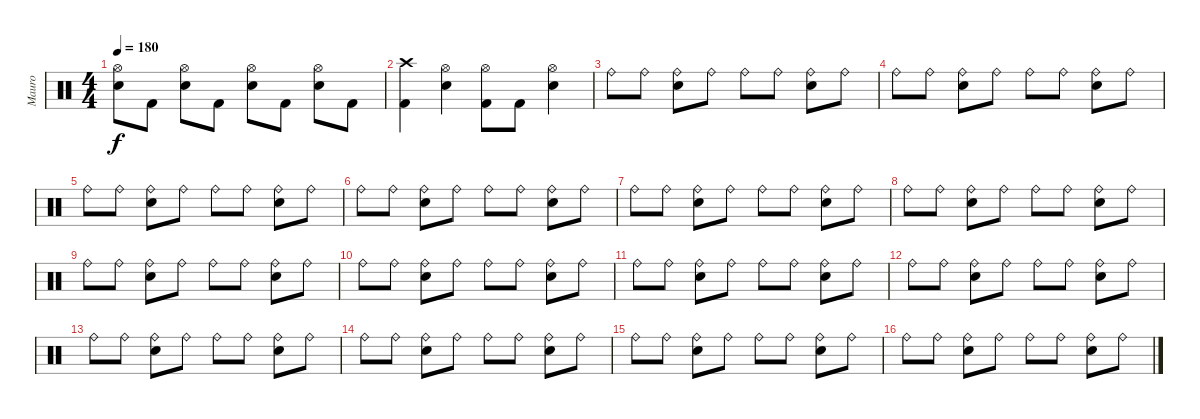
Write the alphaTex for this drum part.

\track ("Mauro" "Mauro") {instrument percussion}
\staff {score}
\articulation defaults
\ts (4 4)
\tempo 180
\clef neutral
\ks c
("Hi-Hat (open)" "Snare (hit) 2").8{dy f} "Kick (hit) 2".8 ("Hi-Hat (open)" "Snare (hit) 2").8 "Kick (hit) 2".8 ("Hi-Hat (open)" "Snare (hit) 2").8 "Kick (hit) 2".8 ("Hi-Hat (open)" "Snare (hit) 2").8 "Kick (hit) 2".8 |
("Crash high (hit)" "Kick (hit) 2").4 ("Hi-Hat (open)" "Snare (hit) 2").4 ("Hi-Hat (open)" "Kick (hit) 2").8 "Kick (hit) 2".8 ("Hi-Hat (open)" "Snare (hit) 2").4 |
"Ride (bell)".8 "Ride (bell)".8 ("Ride (bell)" "Snare (hit) 2").8 "Ride (bell)".8 "Ride (bell)".8 "Ride (bell)".8 ("Ride (bell)" "Snare (hit) 2").8 "Ride (bell)".8 |
"Ride (bell)".8 "Ride (bell)".8 ("Ride (bell)" "Snare (hit) 2").8 "Ride (bell)".8 "Ride (bell)".8 "Ride (bell)".8 ("Ride (bell)" "Snare (hit) 2").8 "Ride (bell)".8 |
"Ride (bell)".8 "Ride (bell)".8 ("Ride (bell)" "Snare (hit) 2").8 "Ride (bell)".8 "Ride (bell)".8 "Ride (bell)".8 ("Ride (bell)" "Snare (hit) 2").8 "Ride (bell)".8 |
"Ride (bell)".8 "Ride (bell)".8 ("Ride (bell)" "Snare (hit) 2").8 "Ride (bell)".8 "Ride (bell)".8 "Ride (bell)".8 ("Ride (bell)" "Snare (hit) 2").8 "Ride (bell)".8 |
"Ride (bell)".8 "Ride (bell)".8 ("Ride (bell)" "Snare (hit) 2").8 "Ride (bell)".8 "Ride (bell)".8 "Ride (bell)".8 ("Ride (bell)" "Snare (hit) 2").8 "Ride (bell)".8 |
"Ride (bell)".8 "Ride (bell)".8 ("Ride (bell)" "Snare (hit) 2").8 "Ride (bell)".8 "Ride (bell)".8 "Ride (bell)".8 ("Ride (bell)" "Snare (hit) 2").8 "Ride (bell)".8 |
"Ride (bell)".8 "Ride (bell)".8 ("Ride (bell)" "Snare (hit) 2").8 "Ride (bell)".8 "Ride (bell)".8 "Ride (bell)".8 ("Ride (bell)" "Snare (hit) 2").8 "Ride (bell)".8 |
"Ride (bell)".8 "Ride (bell)".8 ("Ride (bell)" "Snare (hit) 2").8 "Ride (bell)".8 "Ride (bell)".8 "Ride (bell)".8 ("Ride (bell)" "Snare (hit) 2").8 "Ride (bell)".8 |
"Ride (bell)".8 "Ride (bell)".8 ("Ride (bell)" "Snare (hit) 2").8 "Ride (bell)".8 "Ride (bell)".8 "Ride (bell)".8 ("Ride (bell)" "Snare (hit) 2").8 "Ride (bell)".8 |
"Ride (bell)".8 "Ride (bell)".8 ("Ride (bell)" "Snare (hit) 2").8 "Ride (bell)".8 "Ride (bell)".8 "Ride (bell)".8 ("Ride (bell)" "Snare (hit) 2").8 "Ride (bell)".8 |
"Ride (bell)".8 "Ride (bell)".8 ("Ride (bell)" "Snare (hit) 2").8 "Ride (bell)".8 "Ride (bell)".8 "Ride (bell)".8 ("Ride (bell)" "Snare (hit) 2").8 "Ride (bell)".8 |
"Ride (bell)".8 "Ride (bell)".8 ("Ride (bell)" "Snare (hit) 2").8 "Ride (bell)".8 "Ride (bell)".8 "Ride (bell)".8 ("Ride (bell)" "Snare (hit) 2").8 "Ride (bell)".8 |
"Ride (bell)".8 "Ride (bell)".8 ("Ride (bell)" "Snare (hit) 2").8 "Ride (bell)".8 "Ride (bell)".8 "Ride (bell)".8 ("Ride (bell)" "Snare (hit) 2").8 "Ride (bell)".8 |
"Ride (bell)".8 "Ride (bell)".8 ("Ride (bell)" "Snare (hit) 2").8 "Ride (bell)".8 "Ride (bell)".8 "Ride (bell)".8 ("Ride (bell)" "Snare (hit) 2").8 "Ride (bell)".8
